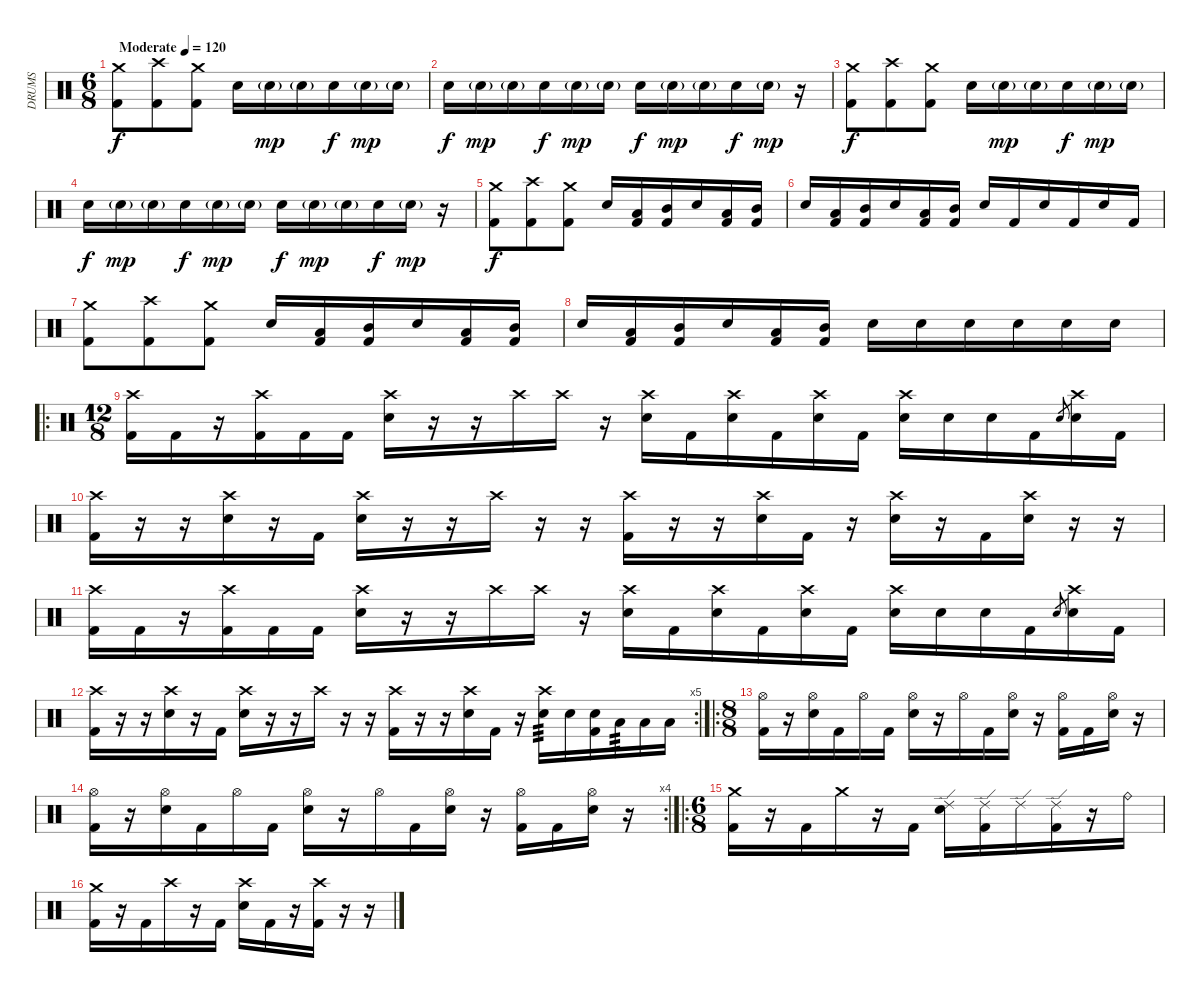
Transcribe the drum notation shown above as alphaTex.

\track ("DRUMS" "DRUMS") {mute instrument percussion}
\staff {score}
\articulation defaults
\ts (6 8)
\tempo (120 "Moderate")
\clef neutral
\ks c
("Crash medium (hit)" "Kick (hit) 2").8{dy f} ("Crash high (hit)" "Kick (hit) 2").8 ("Crash medium (hit)" "Kick (hit) 2").8 "Electric Snare (hit)".16 "Electric Snare (hit)"{g}.16{dy mp} "Electric Snare (hit)"{g}.16 "Electric Snare (hit)".16{dy f} "Electric Snare (hit)"{g}.16{dy mp} "Electric Snare (hit)"{g}.16 |
"Electric Snare (hit)".16{dy f} "Electric Snare (hit)"{g}.16{dy mp} "Electric Snare (hit)"{g}.16 "Electric Snare (hit)".16{dy f} "Electric Snare (hit)"{g}.16{dy mp} "Electric Snare (hit)"{g}.16 "Electric Snare (hit)".16{dy f} "Electric Snare (hit)"{g}.16{dy mp} "Electric Snare (hit)"{g}.16 "Electric Snare (hit)".16{dy f} "Electric Snare (hit)"{g}.16{dy mp} r.16 |
("Crash medium (hit)" "Kick (hit) 2").8{dy f} ("Crash high (hit)" "Kick (hit) 2").8 ("Crash medium (hit)" "Kick (hit) 2").8 "Electric Snare (hit)".16 "Electric Snare (hit)"{g}.16{dy mp} "Electric Snare (hit)"{g}.16 "Electric Snare (hit)".16{dy f} "Electric Snare (hit)"{g}.16{dy mp} "Electric Snare (hit)"{g}.16 |
"Electric Snare (hit)".16{dy f} "Electric Snare (hit)"{g}.16{dy mp} "Electric Snare (hit)"{g}.16 "Electric Snare (hit)".16{dy f} "Electric Snare (hit)"{g}.16{dy mp} "Electric Snare (hit)"{g}.16 "Electric Snare (hit)".16{dy f} "Electric Snare (hit)"{g}.16{dy mp} "Electric Snare (hit)"{g}.16 "Electric Snare (hit)".16{dy f} "Electric Snare (hit)"{g}.16{dy mp} r.16 |
("Crash medium (hit)" "Kick (hit) 2").8{dy f} ("Crash high (hit)" "Kick (hit) 2").8 ("Crash medium (hit)" "Kick (hit) 2").8 "Electric Snare (hit)".16 ("Low Tom (hit)" "Kick (hit) 2").16 ("Mid Tom (hit)" "Kick (hit) 2").16 "Electric Snare (hit)".16 ("Low Tom (hit)" "Kick (hit) 2").16 ("Mid Tom (hit)" "Kick (hit) 2").16 |
"Electric Snare (hit)".16 ("Low Tom (hit)" "Kick (hit) 2").16 ("Mid Tom (hit)" "Kick (hit) 2").16 "Electric Snare (hit)".16 ("Low Tom (hit)" "Kick (hit) 2").16 ("Mid Tom (hit)" "Kick (hit) 2").16 "Electric Snare (hit)".16 "Kick (hit) 2".16 "Electric Snare (hit)".16 "Kick (hit) 2".16 "Electric Snare (hit)".16 "Kick (hit) 2".16 |
("Crash medium (hit)" "Kick (hit) 2").8 ("Crash high (hit)" "Kick (hit) 2").8 ("Crash medium (hit)" "Kick (hit) 2").8 "Electric Snare (hit)".16 ("Low Tom (hit)" "Kick (hit) 2").16 ("Mid Tom (hit)" "Kick (hit) 2").16 "Electric Snare (hit)".16 ("Low Tom (hit)" "Kick (hit) 2").16 ("Mid Tom (hit)" "Kick (hit) 2").16 |
"Electric Snare (hit)".16 ("Low Tom (hit)" "Kick (hit) 2").16 ("Mid Tom (hit)" "Kick (hit) 2").16 "Electric Snare (hit)".16 ("Low Tom (hit)" "Kick (hit) 2").16 ("Mid Tom (hit)" "Kick (hit) 2").16 "Electric Snare (hit)".16 "Electric Snare (hit)".16 "Electric Snare (hit)".16 "Electric Snare (hit)".16 "Electric Snare (hit)".16 "Electric Snare (hit)".16 |
\ro
\ts (12 8)
("Crash high (hit)" "Kick (hit) 2").16 "Kick (hit) 2".16 r.16 ("Crash high (hit)" "Kick (hit) 2").16 "Kick (hit) 2".16 "Kick (hit) 2".16 ("Crash high (hit)" "Electric Snare (hit)").16 r.16 r.16 "Crash high (hit)".16 "Crash high (hit)".16 r.16 ("Crash high (hit)" "Electric Snare (hit)").16 "Kick (hit) 2".16 ("Crash high (hit)" "Electric Snare (hit)").16 "Kick (hit) 2".16 ("Crash high (hit)" "Electric Snare (hit)").16 "Kick (hit) 2".16 ("Crash high (hit)" "Electric Snare (hit)").16 "Electric Snare (hit)".16 "Electric Snare (hit)".16 "Kick (hit) 2".16 "Electric Snare (hit)"{h}.8{gr} ("Crash high (hit)" "Electric Snare (hit)").16 "Kick (hit) 2".16 |
("Crash high (hit)" "Kick (hit) 2").16 r.16 r.16 ("Crash high (hit)" "Electric Snare (hit)").16 r.16 "Kick (hit) 2".16 ("Crash high (hit)" "Electric Snare (hit)").16 r.16 r.16 "Crash high (hit)".16 r.16 r.16 ("Crash high (hit)" "Kick (hit) 2").16 r.16 r.16 ("Crash high (hit)" "Electric Snare (hit)").16 "Kick (hit) 2".16 r.16 ("Crash high (hit)" "Electric Snare (hit)").16 r.16 "Kick (hit) 2".16 ("Crash high (hit)" "Electric Snare (hit)").16 r.16 r.16 |
("Crash high (hit)" "Kick (hit) 2").16 "Kick (hit) 2".16 r.16 ("Crash high (hit)" "Kick (hit) 2").16 "Kick (hit) 2".16 "Kick (hit) 2".16 ("Crash high (hit)" "Electric Snare (hit)").16 r.16 r.16 "Crash high (hit)".16 "Crash high (hit)".16 r.16 ("Crash high (hit)" "Electric Snare (hit)").16 "Kick (hit) 2".16 ("Crash high (hit)" "Electric Snare (hit)").16 "Kick (hit) 2".16 ("Crash high (hit)" "Electric Snare (hit)").16 "Kick (hit) 2".16 ("Crash high (hit)" "Electric Snare (hit)").16 "Electric Snare (hit)".16 "Electric Snare (hit)".16 "Kick (hit) 2".16 "Electric Snare (hit)"{h}.8{gr} ("Crash high (hit)" "Electric Snare (hit)").16 "Kick (hit) 2".16 |
\rc 5
("Crash high (hit)" "Kick (hit) 2").16 r.16 r.16 ("Crash high (hit)" "Electric Snare (hit)").16 r.16 "Kick (hit) 2".16 ("Crash high (hit)" "Electric Snare (hit)").16 r.16 r.16 "Crash high (hit)".16 r.16 r.16 ("Crash high (hit)" "Kick (hit) 2").16 r.16 r.16 ("Crash high (hit)" "Electric Snare (hit)").16 "Kick (hit) 2".16 r.16 ("Crash high (hit)" "Electric Snare (hit)").16{tp 3} "Electric Snare (hit)".16 ("Electric Snare (hit)" "Kick (hit) 2").16 "Low Tom (hit)".16{tp 3} "Low Tom (hit)".16 "Low Tom (hit)".16 |
\ro
\ts (8 8)
("Hi-Hat (open)" "Kick (hit) 2").16 r.16 ("Hi-Hat (open)" "Electric Snare (hit)").16 "Kick (hit) 2".16 "Hi-Hat (open)".16 "Kick (hit) 2".16 ("Hi-Hat (open)" "Electric Snare (hit)").16 r.16 "Hi-Hat (open)".16 "Kick (hit) 2".16 ("Hi-Hat (open)" "Electric Snare (hit)").16 r.16 ("Hi-Hat (open)" "Kick (hit) 2").16 "Kick (hit) 2".16 ("Hi-Hat (open)" "Electric Snare (hit)").16 r.16 |
\rc 4
("Hi-Hat (open)" "Kick (hit) 2").16 r.16 ("Hi-Hat (open)" "Electric Snare (hit)").16 "Kick (hit) 2".16 "Hi-Hat (open)".16 "Kick (hit) 2".16 ("Hi-Hat (open)" "Electric Snare (hit)").16 r.16 "Hi-Hat (open)".16 "Kick (hit) 2".16 ("Hi-Hat (open)" "Electric Snare (hit)").16 r.16 ("Hi-Hat (open)" "Kick (hit) 2").16 "Kick (hit) 2".16 ("Hi-Hat (open)" "Electric Snare (hit)").16 r.16 |
\ro
\ts (6 8)
("Crash medium (hit)" "Kick (hit) 2").16 r.16 "Kick (hit) 2".16 "Crash medium (hit)".16 r.16 "Kick (hit) 2".16 ("Ride (edge) 2" "Electric Snare (hit)").16 ("Ride (edge) 2" "Kick (hit) 2").16 "Ride (edge) 2".16 ("Ride (edge) 2" "Kick (hit) 2").16 r.16 "Ride (bell)".16 |
("Crash medium (hit)" "Kick (hit) 2").16 r.16 "Kick (hit) 2".16 "Crash high (hit)".16 r.16 "Kick (hit) 2".16 ("Crash high (hit)" "Electric Snare (hit)").16 "Kick (hit) 2".16 r.16 ("Crash high (hit)" "Kick (hit) 2").16 r.16 r.16
